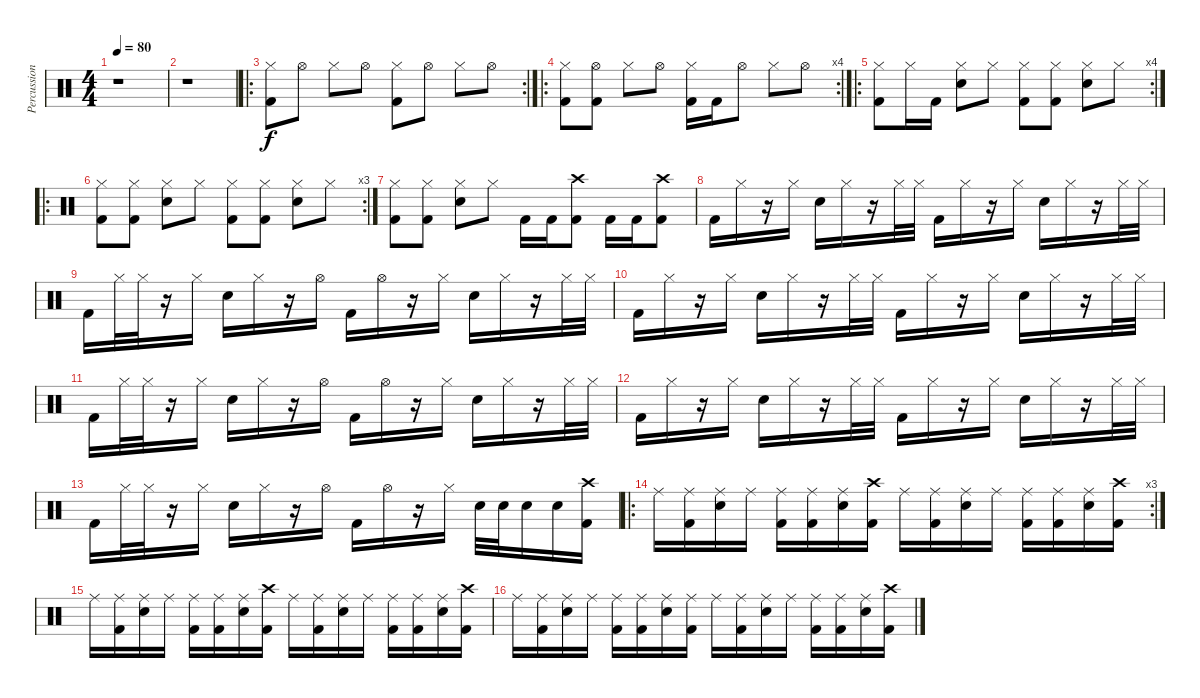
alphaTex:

\track ("Percussion" "Percussion") {instrument percussion}
\staff {score}
\articulation defaults
\ts (4 4)
\tempo 80
\clef neutral
\ks c
r.1{dy f} |
r.1 |
\ro
\rc 2
("Hi-Hat (closed)" "Kick (hit) 2").8 "Hi-Hat (open)".8 "Hi-Hat (closed)".8 "Hi-Hat (open)".8 ("Hi-Hat (closed)" "Kick (hit) 2").8 "Hi-Hat (open)".8 "Hi-Hat (closed)".8 "Hi-Hat (open)".8 |
\ro
\rc 4
("Hi-Hat (closed)" "Kick (hit) 2").8 ("Hi-Hat (open)" "Kick (hit) 2").8 "Hi-Hat (closed)".8 "Hi-Hat (open)".8 ("Hi-Hat (closed)" "Kick (hit) 2").16 "Kick (hit) 2".16 "Hi-Hat (open)".8 "Hi-Hat (closed)".8 "Hi-Hat (open)".8 |
\ro
\rc 4
("Hi-Hat (closed)" "Kick (hit) 2").8 "Hi-Hat (closed)".16 "Kick (hit) 2".16 ("Hi-Hat (closed)" "Snare (hit) 2").8 "Hi-Hat (closed)".8 ("Hi-Hat (closed)" "Kick (hit) 2").8 ("Hi-Hat (closed)" "Kick (hit) 2").8 ("Hi-Hat (closed)" "Snare (hit) 2").8 "Hi-Hat (closed)".8 |
\ro
\rc 3
("Hi-Hat (closed)" "Kick (hit) 2").8 ("Hi-Hat (closed)" "Kick (hit) 2").8 ("Hi-Hat (closed)" "Snare (hit) 2").8 "Hi-Hat (closed)".8 ("Hi-Hat (closed)" "Kick (hit) 2").8 ("Hi-Hat (closed)" "Kick (hit) 2").8 ("Hi-Hat (closed)" "Snare (hit) 2").8 "Hi-Hat (closed)".8 |
("Hi-Hat (closed)" "Kick (hit) 2").8 ("Hi-Hat (closed)" "Kick (hit) 2").8 ("Hi-Hat (closed)" "Snare (hit) 2").8 "Hi-Hat (closed)".8 "Kick (hit) 2".16 "Kick (hit) 2".16 ("Crash high (hit)" "Kick (hit) 2").8 "Kick (hit) 2".16 "Kick (hit) 2".16 ("Crash high (hit)" "Kick (hit) 2").8 |
"Kick (hit) 2".16 "Hi-Hat (closed)".16 r.16 "Hi-Hat (closed)".16 "Snare (hit) 2".16 "Hi-Hat (closed)".16 r.16 "Hi-Hat (closed)".32 "Hi-Hat (closed)".32 "Kick (hit) 2".16 "Hi-Hat (closed)".16 r.16 "Hi-Hat (closed)".16 "Snare (hit) 2".16 "Hi-Hat (closed)".16 r.16 "Hi-Hat (closed)".32 "Hi-Hat (closed)".32 |
"Kick (hit) 2".16 "Hi-Hat (closed)".32 "Hi-Hat (closed)".32 r.16 "Hi-Hat (closed)".16 "Snare (hit) 2".16 "Hi-Hat (closed)".16 r.16 "Hi-Hat (open)".16 "Kick (hit) 2".16 "Hi-Hat (open)".16 r.16 "Hi-Hat (closed)".16 "Snare (hit) 2".16 "Hi-Hat (closed)".16 r.16 "Hi-Hat (closed)".32 "Hi-Hat (closed)".32 |
"Kick (hit) 2".16 "Hi-Hat (closed)".16 r.16 "Hi-Hat (closed)".16 "Snare (hit) 2".16 "Hi-Hat (closed)".16 r.16 "Hi-Hat (closed)".32 "Hi-Hat (closed)".32 "Kick (hit) 2".16 "Hi-Hat (closed)".16 r.16 "Hi-Hat (closed)".16 "Snare (hit) 2".16 "Hi-Hat (closed)".16 r.16 "Hi-Hat (closed)".32 "Hi-Hat (closed)".32 |
"Kick (hit) 2".16 "Hi-Hat (closed)".32 "Hi-Hat (closed)".32 r.16 "Hi-Hat (closed)".16 "Snare (hit) 2".16 "Hi-Hat (closed)".16 r.16 "Hi-Hat (open)".16 "Kick (hit) 2".16 "Hi-Hat (open)".16 r.16 "Hi-Hat (closed)".16 "Snare (hit) 2".16 "Hi-Hat (closed)".16 r.16 "Hi-Hat (closed)".32 "Hi-Hat (closed)".32 |
"Kick (hit) 2".16 "Hi-Hat (closed)".16 r.16 "Hi-Hat (closed)".16 "Snare (hit) 2".16 "Hi-Hat (closed)".16 r.16 "Hi-Hat (closed)".32 "Hi-Hat (closed)".32 "Kick (hit) 2".16 "Hi-Hat (closed)".16 r.16 "Hi-Hat (closed)".16 "Snare (hit) 2".16 "Hi-Hat (closed)".16 r.16 "Hi-Hat (closed)".32 "Hi-Hat (closed)".32 |
"Kick (hit) 2".16 "Hi-Hat (closed)".32 "Hi-Hat (closed)".32 r.16 "Hi-Hat (closed)".16 "Snare (hit) 2".16 "Hi-Hat (closed)".16 r.16 "Hi-Hat (open)".16 "Kick (hit) 2".16 "Hi-Hat (open)".16 r.16 "Hi-Hat (closed)".16 "Snare (hit) 2".32 "Snare (hit) 2".32 "Snare (hit) 2".16 "Snare (hit) 2".16 ("Crash high (hit)" "Kick (hit) 2").16 |
\ro
\rc 3 "Ride (middle)".16
("Ride (middle)" "Kick (hit) 2").16 ("Ride (middle)" "Snare (hit) 2").16 "Ride (middle)".16 ("Ride (middle)" "Kick (hit) 2").16 ("Ride (middle)" "Kick (hit) 2").16 ("Ride (middle)" "Snare (hit) 2").16 ("Crash high (hit)" "Kick (hit) 2").16 "Ride (middle)".16 ("Ride (middle)" "Kick (hit) 2").16 ("Ride (middle)" "Snare (hit) 2").16 "Ride (middle)".16 ("Ride (middle)" "Kick (hit) 2").16 ("Ride (middle)" "Kick (hit) 2").16 ("Ride (middle)" "Snare (hit) 2").16 ("Crash high (hit)" "Kick (hit) 2").16 |
"Ride (middle)".16 ("Ride (middle)" "Kick (hit) 2").16 ("Ride (middle)" "Snare (hit) 2").16 "Ride (middle)".16 ("Ride (middle)" "Kick (hit) 2").16 ("Ride (middle)" "Kick (hit) 2").16 ("Ride (middle)" "Snare (hit) 2").16 ("Crash high (hit)" "Kick (hit) 2").16 "Ride (middle)".16 ("Ride (middle)" "Kick (hit) 2").16 ("Ride (middle)" "Snare (hit) 2").16 "Ride (middle)".16 ("Ride (middle)" "Kick (hit) 2").16 ("Ride (middle)" "Kick (hit) 2").16 ("Ride (middle)" "Snare (hit) 2").16 ("Crash high (hit)" "Kick (hit) 2").16 |
"Ride (middle)".16 ("Ride (middle)" "Kick (hit) 2").16 ("Ride (middle)" "Snare (hit) 2").16 "Ride (middle)".16 ("Ride (middle)" "Kick (hit) 2").16 ("Ride (middle)" "Kick (hit) 2").16 ("Ride (middle)" "Snare (hit) 2").16 ("Ride (middle)" "Kick (hit) 2").16 "Ride (middle)".16 ("Ride (middle)" "Kick (hit) 2").16 ("Ride (middle)" "Snare (hit) 2").16 "Ride (middle)".16 ("Ride (middle)" "Kick (hit) 2").16 ("Ride (middle)" "Kick (hit) 2").16 ("Ride (middle)" "Snare (hit) 2").16 ("Crash high (hit)" "Kick (hit) 2").16
